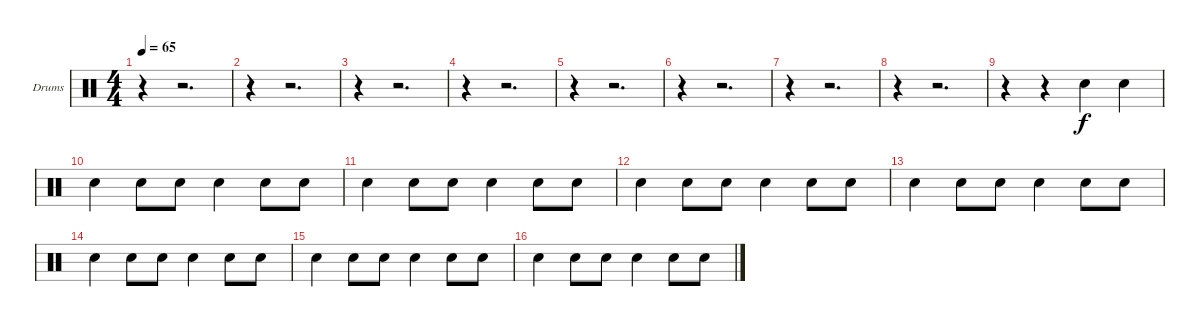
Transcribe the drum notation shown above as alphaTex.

\bracketExtendMode groupsimilarinstruments
\firstSystemTrackNameOrientation horizontal
\otherSystemsTrackNameOrientation horizontal
\track ("Drumkit" "Drums") {instrument percussion}
\staff {score}
\articulation defaults
\ts (4 4)
\tempo 65
\clef neutral
\ks c
r.4{dy f} r.2{d} |
r.4 r.2{d} |
r.4 r.2{d} |
r.4 r.2{d} |
r.4 r.2{d} |
r.4 r.2{d} |
r.4 r.2{d} |
r.4 r.2{d} |
r.4 r.4 "Snare (hit) 2".4 "Snare (hit) 2".4 |
"Snare (hit) 2".4 "Snare (hit) 2".8 "Snare (hit) 2".8 "Snare (hit) 2".4 "Snare (hit) 2".8 "Snare (hit) 2".8 |
"Snare (hit) 2".4 "Snare (hit) 2".8 "Snare (hit) 2".8 "Snare (hit) 2".4 "Snare (hit) 2".8 "Snare (hit) 2".8 |
"Snare (hit) 2".4 "Snare (hit) 2".8 "Snare (hit) 2".8 "Snare (hit) 2".4 "Snare (hit) 2".8 "Snare (hit) 2".8 |
"Snare (hit) 2".4 "Snare (hit) 2".8 "Snare (hit) 2".8 "Snare (hit) 2".4 "Snare (hit) 2".8 "Snare (hit) 2".8 |
"Snare (hit) 2".4 "Snare (hit) 2".8 "Snare (hit) 2".8 "Snare (hit) 2".4 "Snare (hit) 2".8 "Snare (hit) 2".8 |
"Snare (hit) 2".4 "Snare (hit) 2".8 "Snare (hit) 2".8 "Snare (hit) 2".4 "Snare (hit) 2".8 "Snare (hit) 2".8 |
"Snare (hit) 2".4 "Snare (hit) 2".8 "Snare (hit) 2".8 "Snare (hit) 2".4 "Snare (hit) 2".8 "Snare (hit) 2".8
